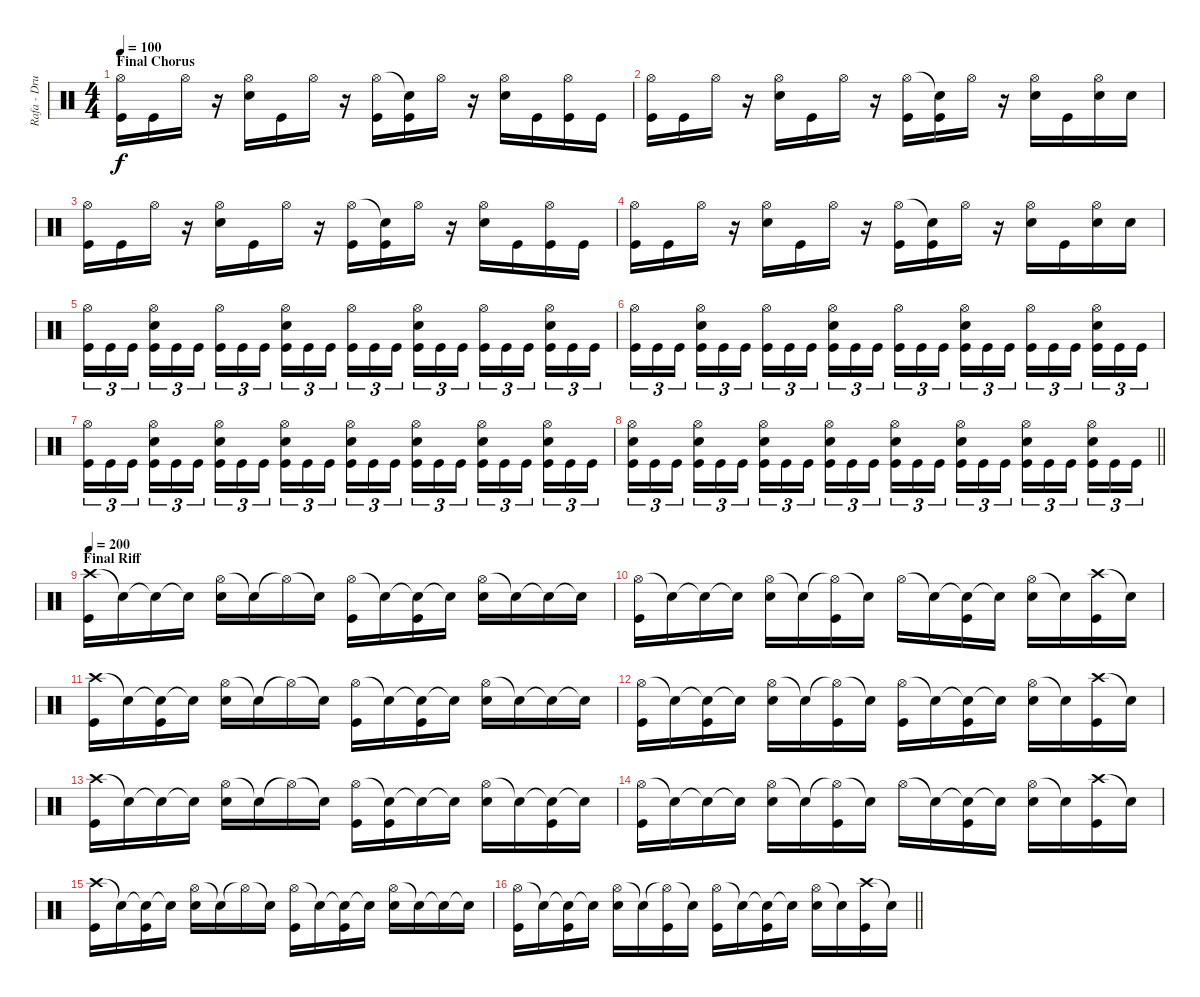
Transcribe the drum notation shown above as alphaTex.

\track ("Rafa - Drums" "Rafa - Dru") {instrument percussion}
\staff {score}
\articulation defaults
\ts (4 4)
\section ("" "Final Chorus")
\tempo 100
\clef neutral
\ks c
("Hi-Hat (open)" "Kick (hit)").16{dy f} "Kick (hit)".16 "Hi-Hat (open)".16 r.16 ("Hi-Hat (open)" "Electric Snare (hit)").16 "Kick (hit)".16 "Hi-Hat (open)".16 r.16 ("Hi-Hat (open)" "Kick (hit)").16 ("Snare (hit)"{t} "Kick (hit)").16 "Hi-Hat (open)".16 r.16 ("Hi-Hat (open)" "Electric Snare (hit)").16 "Kick (hit)".16 ("Hi-Hat (open)" "Kick (hit)").16 "Kick (hit)".16 |
("Hi-Hat (open)" "Kick (hit)").16 "Kick (hit)".16 "Hi-Hat (open)".16 r.16 ("Hi-Hat (open)" "Electric Snare (hit)").16 "Kick (hit)".16 "Hi-Hat (open)".16 r.16 ("Hi-Hat (open)" "Kick (hit)").16 ("Snare (hit)"{t} "Kick (hit)").16 "Hi-Hat (open)".16 r.16 ("Hi-Hat (open)" "Electric Snare (hit)").16 "Kick (hit)".16 ("Hi-Hat (open)" "Electric Snare (hit)").16 "Electric Snare (hit)".16 |
("Hi-Hat (open)" "Kick (hit)").16 "Kick (hit)".16 "Hi-Hat (open)".16 r.16 ("Hi-Hat (open)" "Electric Snare (hit)").16 "Kick (hit)".16 "Hi-Hat (open)".16 r.16 ("Hi-Hat (open)" "Kick (hit)").16 ("Snare (hit)"{t} "Kick (hit)").16 "Hi-Hat (open)".16 r.16 ("Hi-Hat (open)" "Electric Snare (hit)").16 "Kick (hit)".16 ("Hi-Hat (open)" "Kick (hit)").16 "Kick (hit)".16 |
("Hi-Hat (open)" "Kick (hit)").16 "Kick (hit)".16 "Hi-Hat (open)".16 r.16 ("Hi-Hat (open)" "Electric Snare (hit)").16 "Kick (hit)".16 "Hi-Hat (open)".16 r.16 ("Hi-Hat (open)" "Kick (hit)").16 ("Snare (hit)"{t} "Kick (hit)").16 "Hi-Hat (open)".16 r.16 ("Hi-Hat (open)" "Electric Snare (hit)").16 "Kick (hit)".16 ("Hi-Hat (open)" "Electric Snare (hit)").16 "Electric Snare (hit)".16 |
("Hi-Hat (open)" "Kick (hit)").16{tu (3 2)} "Kick (hit)".16{tu (3 2)} "Kick (hit)".16{tu (3 2)} ("Hi-Hat (open)" "Electric Snare (hit)" "Kick (hit)").16{tu (3 2)} "Kick (hit)".16{tu (3 2)} "Kick (hit)".16{tu (3 2)} ("Hi-Hat (open)" "Kick (hit)").16{tu (3 2)} "Kick (hit)".16{tu (3 2)} "Kick (hit)".16{tu (3 2)} ("Electric Snare (hit)" "Hi-Hat (open)" "Kick (hit)").16{tu (3 2)} "Kick (hit)".16{tu (3 2)} "Kick (hit)".16{tu (3 2)} ("Hi-Hat (open)" "Kick (hit)").16{tu (3 2)} "Kick (hit)".16{tu (3 2)} "Kick (hit)".16{tu (3 2)} ("Electric Snare (hit)" "Hi-Hat (open)" "Kick (hit)").16{tu (3 2)} "Kick (hit)".16{tu (3 2)} "Kick (hit)".16{tu (3 2)} ("Hi-Hat (open)" "Kick (hit)").16{tu (3 2)} "Kick (hit)".16{tu (3 2)} "Kick (hit)".16{tu (3 2)} ("Electric Snare (hit)" "Hi-Hat (open)" "Kick (hit)").16{tu (3 2)} "Kick (hit)".16{tu (3 2)} "Kick (hit)".16{tu (3 2)} |
("Hi-Hat (open)" "Kick (hit)").16{tu (3 2)} "Kick (hit)".16{tu (3 2)} "Kick (hit)".16{tu (3 2)} ("Hi-Hat (open)" "Electric Snare (hit)" "Kick (hit)").16{tu (3 2)} "Kick (hit)".16{tu (3 2)} "Kick (hit)".16{tu (3 2)} ("Hi-Hat (open)" "Kick (hit)").16{tu (3 2)} "Kick (hit)".16{tu (3 2)} "Kick (hit)".16{tu (3 2)} ("Electric Snare (hit)" "Hi-Hat (open)" "Kick (hit)").16{tu (3 2)} "Kick (hit)".16{tu (3 2)} "Kick (hit)".16{tu (3 2)} ("Hi-Hat (open)" "Kick (hit)").16{tu (3 2)} "Kick (hit)".16{tu (3 2)} "Kick (hit)".16{tu (3 2)} ("Electric Snare (hit)" "Hi-Hat (open)" "Kick (hit)").16{tu (3 2)} "Kick (hit)".16{tu (3 2)} "Kick (hit)".16{tu (3 2)} ("Hi-Hat (open)" "Kick (hit)").16{tu (3 2)} "Kick (hit)".16{tu (3 2)} "Kick (hit)".16{tu (3 2)} ("Electric Snare (hit)" "Hi-Hat (open)" "Kick (hit)").16{tu (3 2)} "Kick (hit)".16{tu (3 2)} "Kick (hit)".16{tu (3 2)} |
("Hi-Hat (open)" "Kick (hit)").16{tu (3 2)} "Kick (hit)".16{tu (3 2)} "Kick (hit)".16{tu (3 2)} ("Hi-Hat (open)" "Electric Snare (hit)" "Kick (hit)").16{tu (3 2)} "Kick (hit)".16{tu (3 2)} "Kick (hit)".16{tu (3 2)} ("Electric Snare (hit)" "Hi-Hat (open)" "Kick (hit)").16{tu (3 2)} "Kick (hit)".16{tu (3 2)} "Kick (hit)".16{tu (3 2)} ("Electric Snare (hit)" "Hi-Hat (open)" "Kick (hit)").16{tu (3 2)} "Kick (hit)".16{tu (3 2)} "Kick (hit)".16{tu (3 2)} ("Electric Snare (hit)" "Hi-Hat (open)" "Kick (hit)").16{tu (3 2)} "Kick (hit)".16{tu (3 2)} "Kick (hit)".16{tu (3 2)} ("Electric Snare (hit)" "Hi-Hat (open)" "Kick (hit)").16{tu (3 2)} "Kick (hit)".16{tu (3 2)} "Kick (hit)".16{tu (3 2)} ("Electric Snare (hit)" "Hi-Hat (open)" "Kick (hit)").16{tu (3 2)} "Kick (hit)".16{tu (3 2)} "Kick (hit)".16{tu (3 2)} ("Electric Snare (hit)" "Hi-Hat (open)" "Kick (hit)").16{tu (3 2)} "Kick (hit)".16{tu (3 2)} "Kick (hit)".16{tu (3 2)} |
\barLineRight lightlight
("Electric Snare (hit)" "Hi-Hat (open)" "Kick (hit)").16{tu (3 2)} "Kick (hit)".16{tu (3 2)} "Kick (hit)".16{tu (3 2)} ("Hi-Hat (open)" "Electric Snare (hit)" "Kick (hit)").16{tu (3 2)} "Kick (hit)".16{tu (3 2)} "Kick (hit)".16{tu (3 2)} ("Electric Snare (hit)" "Hi-Hat (open)" "Kick (hit)").16{tu (3 2)} "Kick (hit)".16{tu (3 2)} "Kick (hit)".16{tu (3 2)} ("Electric Snare (hit)" "Hi-Hat (open)" "Kick (hit)").16{tu (3 2)} "Kick (hit)".16{tu (3 2)} "Kick (hit)".16{tu (3 2)} ("Electric Snare (hit)" "Hi-Hat (open)" "Kick (hit)").16{tu (3 2)} "Kick (hit)".16{tu (3 2)} "Kick (hit)".16{tu (3 2)} ("Electric Snare (hit)" "Hi-Hat (open)" "Kick (hit)").16{tu (3 2)} "Kick (hit)".16{tu (3 2)} "Kick (hit)".16{tu (3 2)} ("Electric Snare (hit)" "Hi-Hat (open)" "Kick (hit)").16{tu (3 2)} "Kick (hit)".16{tu (3 2)} "Kick (hit)".16{tu (3 2)} ("Electric Snare (hit)" "Hi-Hat (open)" "Kick (hit)").16{tu (3 2)} "Kick (hit)".16{tu (3 2)} "Kick (hit)".16{tu (3 2)} |
\section ("" "Final Riff")
\tempo 200
("Crash high (hit)" "Kick (hit)").16 "Snare (hit)"{t}.16 "Snare (hit)"{t}.16 "Snare (hit)"{t}.16 ("Hi-Hat (open)" "Electric Snare (hit)").16 "Snare (hit)"{t}.16 "Hi-Hat (open)"{t}.16 "Snare (hit)"{t}.16 ("Hi-Hat (open)" "Kick (hit)").16 "Snare (hit)"{t}.16 ("Snare (hit)"{t} "Kick (hit)").16 "Snare (hit)"{t}.16 ("Hi-Hat (open)" "Electric Snare (hit)").16 "Snare (hit)"{t}.16 "Snare (hit)"{t}.16 "Snare (hit)"{t}.16 |
("Hi-Hat (open)" "Kick (hit)").16 "Snare (hit)"{t}.16 "Snare (hit)"{t}.16 "Snare (hit)"{t}.16 ("Hi-Hat (open)" "Electric Snare (hit)").16 "Snare (hit)"{t}.16 ("Hi-Hat (open)"{t} "Kick (hit)").16 "Snare (hit)"{t}.16 "Hi-Hat (open)".16 "Snare (hit)"{t}.16 ("Snare (hit)"{t} "Kick (hit)").16 "Snare (hit)"{t}.16 ("Hi-Hat (open)" "Electric Snare (hit)").16 "Snare (hit)"{t}.16 ("Crash high (hit)" "Kick (hit)").16 "Snare (hit)"{t}.16 |
("Crash high (hit)" "Kick (hit)").16 "Snare (hit)"{t}.16 ("Snare (hit)"{t} "Kick (hit)").16 "Snare (hit)"{t}.16 ("Hi-Hat (open)" "Electric Snare (hit)").16 "Snare (hit)"{t}.16 "Hi-Hat (open)"{t}.16 "Snare (hit)"{t}.16 ("Hi-Hat (open)" "Kick (hit)").16 "Snare (hit)"{t}.16 ("Snare (hit)"{t} "Kick (hit)").16 "Snare (hit)"{t}.16 ("Hi-Hat (open)" "Electric Snare (hit)").16 "Snare (hit)"{t}.16 "Snare (hit)"{t}.16 "Snare (hit)"{t}.16 |
("Hi-Hat (open)" "Kick (hit)").16 "Snare (hit)"{t}.16 ("Snare (hit)"{t} "Kick (hit)").16 "Snare (hit)"{t}.16 ("Hi-Hat (open)" "Electric Snare (hit)").16 "Snare (hit)"{t}.16 ("Hi-Hat (open)"{t} "Kick (hit)").16 "Snare (hit)"{t}.16 ("Hi-Hat (open)" "Kick (hit)").16 "Snare (hit)"{t}.16 ("Snare (hit)"{t} "Kick (hit)").16 "Snare (hit)"{t}.16 ("Hi-Hat (open)" "Electric Snare (hit)").16 "Snare (hit)"{t}.16 ("Crash high (hit)" "Kick (hit)").16 "Snare (hit)"{t}.16 |
("Crash high (hit)" "Kick (hit)").16 "Snare (hit)"{t}.16 "Snare (hit)"{t}.16 "Snare (hit)"{t}.16 ("Hi-Hat (open)" "Electric Snare (hit)").16 "Snare (hit)"{t}.16 "Hi-Hat (open)"{t}.16 "Snare (hit)"{t}.16 ("Hi-Hat (open)" "Kick (hit)").16 ("Snare (hit)"{t} "Kick (hit)").16 "Snare (hit)"{t}.16 "Snare (hit)"{t}.16 ("Hi-Hat (open)" "Electric Snare (hit)").16 "Snare (hit)"{t}.16 ("Snare (hit)"{t} "Kick (hit)").16 "Snare (hit)"{t}.16 |
("Hi-Hat (open)" "Kick (hit)").16 "Snare (hit)"{t}.16 "Snare (hit)"{t}.16 "Snare (hit)"{t}.16 ("Hi-Hat (open)" "Electric Snare (hit)").16 "Snare (hit)"{t}.16 ("Hi-Hat (open)"{t} "Kick (hit)").16 "Snare (hit)"{t}.16 "Hi-Hat (open)".16 "Snare (hit)"{t}.16 ("Snare (hit)"{t} "Kick (hit)").16 "Snare (hit)"{t}.16 ("Hi-Hat (open)" "Electric Snare (hit)").16 "Snare (hit)"{t}.16 ("Crash high (hit)" "Kick (hit)").16 "Snare (hit)"{t}.16 |
("Crash high (hit)" "Kick (hit)").16 "Snare (hit)"{t}.16 ("Snare (hit)"{t} "Kick (hit)").16 "Snare (hit)"{t}.16 ("Hi-Hat (open)" "Electric Snare (hit)").16 "Snare (hit)"{t}.16 "Hi-Hat (open)"{t}.16 "Snare (hit)"{t}.16 ("Hi-Hat (open)" "Kick (hit)").16 "Snare (hit)"{t}.16 ("Snare (hit)"{t} "Kick (hit)").16 "Snare (hit)"{t}.16 ("Hi-Hat (open)" "Electric Snare (hit)").16 "Snare (hit)"{t}.16 "Snare (hit)"{t}.16 "Snare (hit)"{t}.16 |
\barLineRight lightlight
("Hi-Hat (open)" "Kick (hit)").16 "Snare (hit)"{t}.16 ("Snare (hit)"{t} "Kick (hit)").16 "Snare (hit)"{t}.16 ("Hi-Hat (open)" "Electric Snare (hit)").16 "Snare (hit)"{t}.16 ("Hi-Hat (open)"{t} "Kick (hit)").16 "Snare (hit)"{t}.16 ("Hi-Hat (open)" "Kick (hit)").16 "Snare (hit)"{t}.16 ("Snare (hit)"{t} "Kick (hit)").16 "Snare (hit)"{t}.16 ("Hi-Hat (open)" "Electric Snare (hit)").16 "Snare (hit)"{t}.16 ("Crash high (hit)" "Kick (hit)").16 "Snare (hit)"{t}.16
